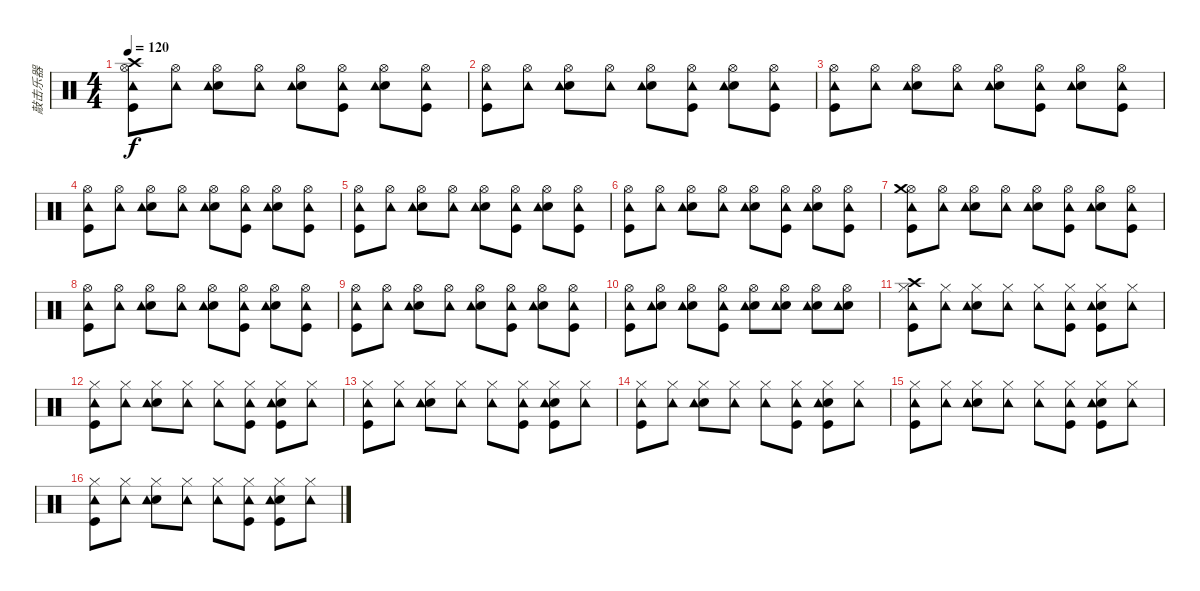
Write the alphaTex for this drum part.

\track ("敲击乐器" "敲击乐器") {instrument percussion}
\staff {score}
\articulation defaults
\ts (4 4)
\tempo 120
\clef neutral
\ks c
("Hi-Hat (open)" "Kick (hit)" "Crash high (hit)" "Tambourine (hit)").8{dy f} ("Hi-Hat (open)" "Tambourine (hit)").8 ("Hi-Hat (open)" "Snare (hit) 2" "Tambourine (hit)").8 ("Hi-Hat (open)" "Tambourine (hit)").8 ("Hi-Hat (open)" "Snare (hit) 2" "Tambourine (hit)").8 ("Hi-Hat (open)" "Kick (hit)" "Tambourine (hit)").8 ("Hi-Hat (open)" "Snare (hit) 2" "Tambourine (hit)").8 ("Hi-Hat (open)" "Kick (hit)" "Tambourine (hit)").8 |
("Hi-Hat (open)" "Kick (hit)" "Tambourine (hit)").8 ("Hi-Hat (open)" "Tambourine (hit)").8 ("Hi-Hat (open)" "Snare (hit) 2" "Tambourine (hit)").8 ("Hi-Hat (open)" "Tambourine (hit)").8 ("Hi-Hat (open)" "Snare (hit) 2" "Tambourine (hit)").8 ("Hi-Hat (open)" "Kick (hit)" "Tambourine (hit)").8 ("Hi-Hat (open)" "Snare (hit) 2" "Tambourine (hit)").8 ("Hi-Hat (open)" "Kick (hit)" "Tambourine (hit)").8 |
("Hi-Hat (open)" "Kick (hit)" "Tambourine (hit)").8 ("Hi-Hat (open)" "Tambourine (hit)").8 ("Hi-Hat (open)" "Snare (hit) 2" "Tambourine (hit)").8 ("Hi-Hat (open)" "Tambourine (hit)").8 ("Hi-Hat (open)" "Snare (hit) 2" "Tambourine (hit)").8 ("Hi-Hat (open)" "Kick (hit)" "Tambourine (hit)").8 ("Hi-Hat (open)" "Snare (hit) 2" "Tambourine (hit)").8 ("Hi-Hat (open)" "Kick (hit)" "Tambourine (hit)").8 |
("Hi-Hat (open)" "Kick (hit)" "Tambourine (hit)").8 ("Hi-Hat (open)" "Tambourine (hit)").8 ("Hi-Hat (open)" "Snare (hit) 2" "Tambourine (hit)").8 ("Hi-Hat (open)" "Tambourine (hit)").8 ("Hi-Hat (open)" "Snare (hit) 2" "Tambourine (hit)").8 ("Hi-Hat (open)" "Kick (hit)" "Tambourine (hit)").8 ("Hi-Hat (open)" "Snare (hit) 2" "Tambourine (hit)").8 ("Hi-Hat (open)" "Kick (hit)" "Tambourine (hit)").8 |
("Hi-Hat (open)" "Kick (hit)" "Tambourine (hit)").8 ("Hi-Hat (open)" "Tambourine (hit)").8 ("Hi-Hat (open)" "Snare (hit) 2" "Tambourine (hit)").8 ("Hi-Hat (open)" "Tambourine (hit)").8 ("Hi-Hat (open)" "Snare (hit) 2" "Tambourine (hit)").8 ("Hi-Hat (open)" "Kick (hit)" "Tambourine (hit)").8 ("Hi-Hat (open)" "Snare (hit) 2" "Tambourine (hit)").8 ("Hi-Hat (open)" "Kick (hit)" "Tambourine (hit)").8 |
("Hi-Hat (open)" "Kick (hit)" "Tambourine (hit)").8 ("Hi-Hat (open)" "Tambourine (hit)").8 ("Hi-Hat (open)" "Snare (hit) 2" "Tambourine (hit)").8 ("Hi-Hat (open)" "Tambourine (hit)").8 ("Hi-Hat (open)" "Snare (hit) 2" "Tambourine (hit)").8 ("Hi-Hat (open)" "Kick (hit)" "Tambourine (hit)").8 ("Hi-Hat (open)" "Snare (hit) 2" "Tambourine (hit)").8 ("Hi-Hat (open)" "Kick (hit)" "Tambourine (hit)").8 |
("Hi-Hat (open)" "Crash medium (hit)" "Kick (hit)" "Tambourine (hit)").8 ("Hi-Hat (open)" "Tambourine (hit)").8 ("Hi-Hat (open)" "Snare (hit) 2" "Tambourine (hit)").8 ("Hi-Hat (open)" "Tambourine (hit)").8 ("Hi-Hat (open)" "Snare (hit) 2" "Tambourine (hit)").8 ("Hi-Hat (open)" "Kick (hit)" "Tambourine (hit)").8 ("Hi-Hat (open)" "Snare (hit) 2" "Tambourine (hit)").8 ("Hi-Hat (open)" "Kick (hit)" "Tambourine (hit)").8 |
("Hi-Hat (open)" "Kick (hit)" "Tambourine (hit)").8 ("Hi-Hat (open)" "Tambourine (hit)").8 ("Hi-Hat (open)" "Snare (hit) 2" "Tambourine (hit)").8 ("Hi-Hat (open)" "Tambourine (hit)").8 ("Hi-Hat (open)" "Snare (hit) 2" "Tambourine (hit)").8 ("Hi-Hat (open)" "Kick (hit)" "Tambourine (hit)").8 ("Hi-Hat (open)" "Snare (hit) 2" "Tambourine (hit)").8 ("Hi-Hat (open)" "Kick (hit)" "Tambourine (hit)").8 |
("Hi-Hat (open)" "Kick (hit)" "Tambourine (hit)").8 ("Hi-Hat (open)" "Tambourine (hit)").8 ("Hi-Hat (open)" "Snare (hit) 2" "Tambourine (hit)").8 ("Hi-Hat (open)" "Tambourine (hit)").8 ("Hi-Hat (open)" "Snare (hit) 2" "Tambourine (hit)").8 ("Hi-Hat (open)" "Kick (hit)" "Tambourine (hit)").8 ("Hi-Hat (open)" "Snare (hit) 2" "Tambourine (hit)").8 ("Hi-Hat (open)" "Kick (hit)" "Tambourine (hit)").8 |
("Hi-Hat (open)" "Kick (hit)" "Tambourine (hit)").8 ("Hi-Hat (open)" "Snare (hit) 2" "Tambourine (hit)").8 ("Hi-Hat (open)" "Snare (hit) 2" "Tambourine (hit)").8 ("Hi-Hat (open)" "Kick (hit)" "Tambourine (hit)").8 ("Hi-Hat (open)" "Snare (hit) 2" "Tambourine (hit)").8 ("Hi-Hat (open)" "Snare (hit) 2" "Tambourine (hit)").8 ("Hi-Hat (open)" "Snare (hit) 2" "Tambourine (hit)").8 ("Hi-Hat (open)" "Snare (hit) 2" "Tambourine (hit)").8 |
("Hi-Hat (closed)" "Crash high (hit)" "Kick (hit)" "Tambourine (hit)").8 ("Hi-Hat (closed)" "Tambourine (hit)").8 ("Hi-Hat (closed)" "Snare (hit) 2" "Tambourine (hit)").8 ("Hi-Hat (closed)" "Tambourine (hit)").8 ("Hi-Hat (closed)" "Tambourine (hit)").8 ("Hi-Hat (closed)" "Kick (hit)" "Tambourine (hit)").8 ("Hi-Hat (closed)" "Snare (hit) 2" "Kick (hit)" "Tambourine (hit)").8 ("Hi-Hat (closed)" "Tambourine (hit)").8 |
("Hi-Hat (closed)" "Kick (hit)" "Tambourine (hit)").8 ("Hi-Hat (closed)" "Tambourine (hit)").8 ("Hi-Hat (closed)" "Snare (hit) 2" "Tambourine (hit)").8 ("Hi-Hat (closed)" "Tambourine (hit)").8 ("Hi-Hat (closed)" "Tambourine (hit)").8 ("Hi-Hat (closed)" "Kick (hit)" "Tambourine (hit)").8 ("Hi-Hat (closed)" "Snare (hit) 2" "Kick (hit)" "Tambourine (hit)").8 ("Hi-Hat (closed)" "Tambourine (hit)").8 |
("Hi-Hat (closed)" "Kick (hit)" "Tambourine (hit)").8 ("Hi-Hat (closed)" "Tambourine (hit)").8 ("Hi-Hat (closed)" "Snare (hit) 2" "Tambourine (hit)").8 ("Hi-Hat (closed)" "Tambourine (hit)").8 ("Hi-Hat (closed)" "Tambourine (hit)").8 ("Hi-Hat (closed)" "Kick (hit)" "Tambourine (hit)").8 ("Hi-Hat (closed)" "Snare (hit) 2" "Kick (hit)" "Tambourine (hit)").8 ("Hi-Hat (closed)" "Tambourine (hit)").8 |
("Hi-Hat (closed)" "Kick (hit)" "Tambourine (hit)").8 ("Hi-Hat (closed)" "Tambourine (hit)").8 ("Hi-Hat (closed)" "Snare (hit) 2" "Tambourine (hit)").8 ("Hi-Hat (closed)" "Tambourine (hit)").8 ("Hi-Hat (closed)" "Tambourine (hit)").8 ("Hi-Hat (closed)" "Kick (hit)" "Tambourine (hit)").8 ("Hi-Hat (closed)" "Snare (hit) 2" "Kick (hit)" "Tambourine (hit)").8 ("Hi-Hat (closed)" "Tambourine (hit)").8 |
("Hi-Hat (closed)" "Kick (hit)" "Tambourine (hit)").8 ("Hi-Hat (closed)" "Tambourine (hit)").8 ("Hi-Hat (closed)" "Snare (hit) 2" "Tambourine (hit)").8 ("Hi-Hat (closed)" "Tambourine (hit)").8 ("Hi-Hat (closed)" "Tambourine (hit)").8 ("Hi-Hat (closed)" "Kick (hit)" "Tambourine (hit)").8 ("Hi-Hat (closed)" "Snare (hit) 2" "Kick (hit)" "Tambourine (hit)").8 ("Hi-Hat (closed)" "Tambourine (hit)").8 |
("Hi-Hat (closed)" "Kick (hit)" "Tambourine (hit)").8 ("Hi-Hat (closed)" "Tambourine (hit)").8 ("Hi-Hat (closed)" "Snare (hit) 2" "Tambourine (hit)").8 ("Hi-Hat (closed)" "Tambourine (hit)").8 ("Hi-Hat (closed)" "Tambourine (hit)").8 ("Hi-Hat (closed)" "Kick (hit)" "Tambourine (hit)").8 ("Hi-Hat (closed)" "Snare (hit) 2" "Kick (hit)" "Tambourine (hit)").8 ("Hi-Hat (closed)" "Tambourine (hit)").8
